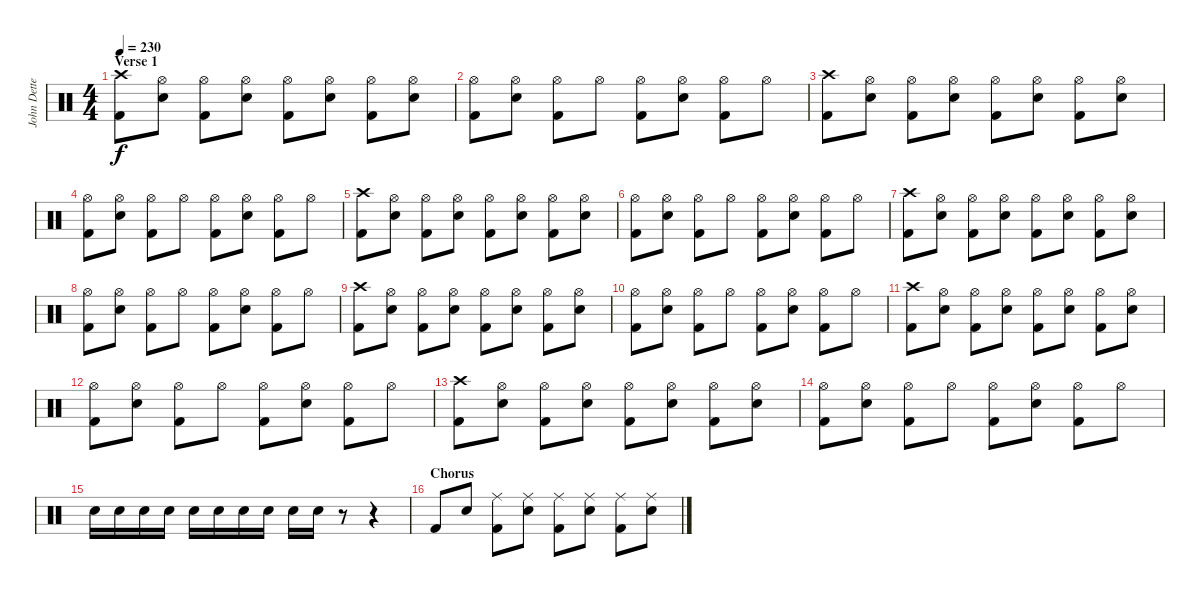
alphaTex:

\track ("John Dette" "John Dette") {instrument percussion}
\staff {score}
\articulation defaults
\ts (4 4)
\section ("" "Verse 1")
\tempo 230
\clef neutral
\ks c
("Crash high (hit)" "Kick (hit) 2").8{dy f} ("Hi-Hat (open)" "Snare (hit) 2").8 ("Hi-Hat (open)" "Kick (hit) 2").8 ("Hi-Hat (open)" "Snare (hit) 2").8 ("Hi-Hat (open)" "Kick (hit) 2").8 ("Hi-Hat (open)" "Snare (hit) 2").8 ("Hi-Hat (open)" "Kick (hit) 2").8 ("Hi-Hat (open)" "Snare (hit) 2").8 |
("Hi-Hat (open)" "Kick (hit) 2").8 ("Hi-Hat (open)" "Snare (hit) 2").8 ("Hi-Hat (open)" "Kick (hit) 2").8 "Hi-Hat (open)".8 ("Hi-Hat (open)" "Kick (hit) 2").8 ("Hi-Hat (open)" "Snare (hit) 2").8 ("Hi-Hat (open)" "Kick (hit) 2").8 "Hi-Hat (open)".8 |
("Crash high (hit)" "Kick (hit) 2").8 ("Hi-Hat (open)" "Snare (hit) 2").8 ("Hi-Hat (open)" "Kick (hit) 2").8 ("Hi-Hat (open)" "Snare (hit) 2").8 ("Hi-Hat (open)" "Kick (hit) 2").8 ("Hi-Hat (open)" "Snare (hit) 2").8 ("Hi-Hat (open)" "Kick (hit) 2").8 ("Hi-Hat (open)" "Snare (hit) 2").8 |
("Hi-Hat (open)" "Kick (hit) 2").8 ("Hi-Hat (open)" "Snare (hit) 2").8 ("Hi-Hat (open)" "Kick (hit) 2").8 "Hi-Hat (open)".8 ("Hi-Hat (open)" "Kick (hit) 2").8 ("Hi-Hat (open)" "Snare (hit) 2").8 ("Hi-Hat (open)" "Kick (hit) 2").8 "Hi-Hat (open)".8 |
("Crash high (hit)" "Kick (hit) 2").8 ("Hi-Hat (open)" "Snare (hit) 2").8 ("Hi-Hat (open)" "Kick (hit) 2").8 ("Hi-Hat (open)" "Snare (hit) 2").8 ("Hi-Hat (open)" "Kick (hit) 2").8 ("Hi-Hat (open)" "Snare (hit) 2").8 ("Hi-Hat (open)" "Kick (hit) 2").8 ("Hi-Hat (open)" "Snare (hit) 2").8 |
("Hi-Hat (open)" "Kick (hit) 2").8 ("Hi-Hat (open)" "Snare (hit) 2").8 ("Hi-Hat (open)" "Kick (hit) 2").8 "Hi-Hat (open)".8 ("Hi-Hat (open)" "Kick (hit) 2").8 ("Hi-Hat (open)" "Snare (hit) 2").8 ("Hi-Hat (open)" "Kick (hit) 2").8 "Hi-Hat (open)".8 |
("Crash high (hit)" "Kick (hit) 2").8 ("Hi-Hat (open)" "Snare (hit) 2").8 ("Hi-Hat (open)" "Kick (hit) 2").8 ("Hi-Hat (open)" "Snare (hit) 2").8 ("Hi-Hat (open)" "Kick (hit) 2").8 ("Hi-Hat (open)" "Snare (hit) 2").8 ("Hi-Hat (open)" "Kick (hit) 2").8 ("Hi-Hat (open)" "Snare (hit) 2").8 |
("Hi-Hat (open)" "Kick (hit) 2").8 ("Hi-Hat (open)" "Snare (hit) 2").8 ("Hi-Hat (open)" "Kick (hit) 2").8 "Hi-Hat (open)".8 ("Hi-Hat (open)" "Kick (hit) 2").8 ("Hi-Hat (open)" "Snare (hit) 2").8 ("Hi-Hat (open)" "Kick (hit) 2").8 "Hi-Hat (open)".8 |
("Crash high (hit)" "Kick (hit) 2").8 ("Hi-Hat (open)" "Snare (hit) 2").8 ("Hi-Hat (open)" "Kick (hit) 2").8 ("Hi-Hat (open)" "Snare (hit) 2").8 ("Hi-Hat (open)" "Kick (hit) 2").8 ("Hi-Hat (open)" "Snare (hit) 2").8 ("Hi-Hat (open)" "Kick (hit) 2").8 ("Hi-Hat (open)" "Snare (hit) 2").8 |
("Hi-Hat (open)" "Kick (hit) 2").8 ("Hi-Hat (open)" "Snare (hit) 2").8 ("Hi-Hat (open)" "Kick (hit) 2").8 "Hi-Hat (open)".8 ("Hi-Hat (open)" "Kick (hit) 2").8 ("Hi-Hat (open)" "Snare (hit) 2").8 ("Hi-Hat (open)" "Kick (hit) 2").8 "Hi-Hat (open)".8 |
("Crash high (hit)" "Kick (hit) 2").8 ("Hi-Hat (open)" "Snare (hit) 2").8 ("Hi-Hat (open)" "Kick (hit) 2").8 ("Hi-Hat (open)" "Snare (hit) 2").8 ("Hi-Hat (open)" "Kick (hit) 2").8 ("Hi-Hat (open)" "Snare (hit) 2").8 ("Hi-Hat (open)" "Kick (hit) 2").8 ("Hi-Hat (open)" "Snare (hit) 2").8 |
("Hi-Hat (open)" "Kick (hit) 2").8 ("Hi-Hat (open)" "Snare (hit) 2").8 ("Hi-Hat (open)" "Kick (hit) 2").8 "Hi-Hat (open)".8 ("Hi-Hat (open)" "Kick (hit) 2").8 ("Hi-Hat (open)" "Snare (hit) 2").8 ("Hi-Hat (open)" "Kick (hit) 2").8 "Hi-Hat (open)".8 |
("Crash high (hit)" "Kick (hit) 2").8 ("Hi-Hat (open)" "Snare (hit) 2").8 ("Hi-Hat (open)" "Kick (hit) 2").8 ("Hi-Hat (open)" "Snare (hit) 2").8 ("Hi-Hat (open)" "Kick (hit) 2").8 ("Hi-Hat (open)" "Snare (hit) 2").8 ("Hi-Hat (open)" "Kick (hit) 2").8 ("Hi-Hat (open)" "Snare (hit) 2").8 |
("Hi-Hat (open)" "Kick (hit) 2").8 ("Hi-Hat (open)" "Snare (hit) 2").8 ("Hi-Hat (open)" "Kick (hit) 2").8 "Hi-Hat (open)".8 ("Hi-Hat (open)" "Kick (hit) 2").8 ("Hi-Hat (open)" "Snare (hit) 2").8 ("Hi-Hat (open)" "Kick (hit) 2").8 "Hi-Hat (open)".8 |
"Snare (hit) 2".16 "Snare (hit) 2".16 "Snare (hit) 2".16 "Snare (hit) 2".16 "Snare (hit) 2".16 "Snare (hit) 2".16 "Snare (hit) 2".16 "Snare (hit) 2".16 "Snare (hit) 2".16 "Snare (hit) 2".16 r.8 r.4 |
\section ("" "Chorus")
"Kick (hit) 2".8 "Snare (hit) 2".8 ("Ride (middle)" "Kick (hit) 2").8 ("Ride (middle)" "Snare (hit) 2").8 ("Ride (middle)" "Kick (hit) 2").8 ("Ride (middle)" "Snare (hit) 2").8 ("Ride (middle)" "Kick (hit) 2").8 ("Ride (middle)" "Snare (hit) 2").8
